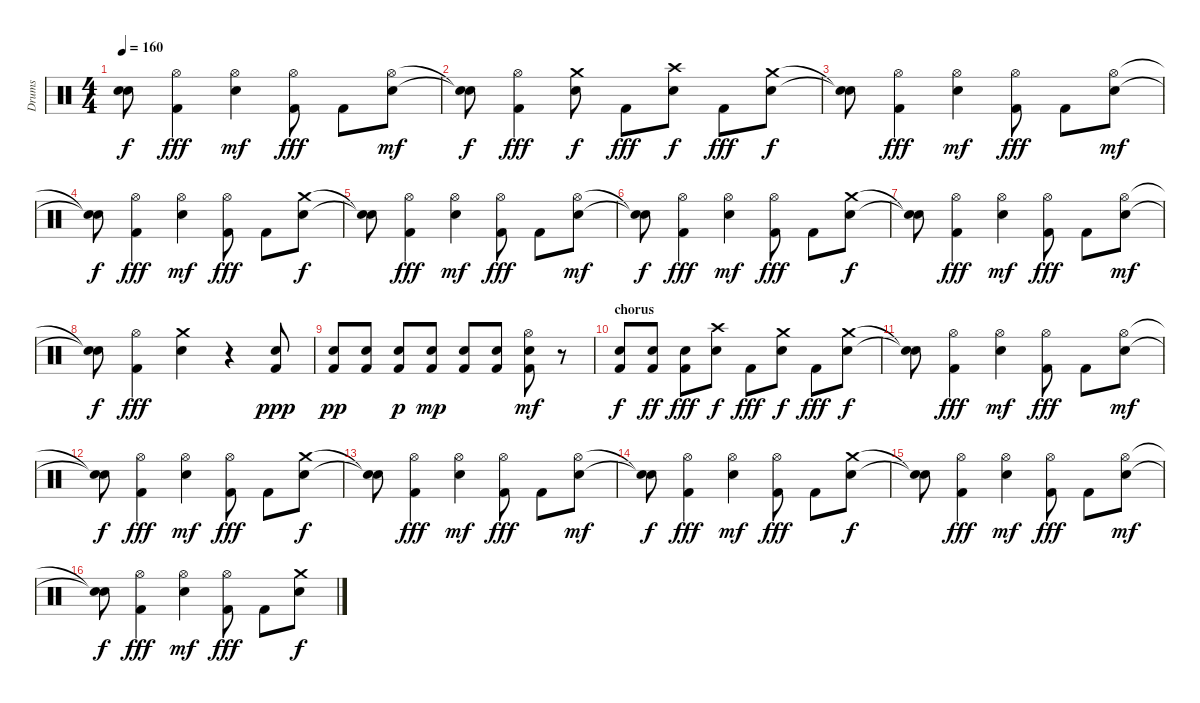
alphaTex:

\track ("Drums" "Drums") {instrument percussion}
\staff {score}
\articulation defaults
\ts (4 4)
\tempo 160
\clef neutral
\ks c
("Snare (hit)"{t} "Snare (hit)"{t}).8{dy f} ("Hi-Hat (open)" "Kick (hit) 2").4{dy fff} ("Hi-Hat (open)" "Electric Snare (hit)").4{dy mf} ("Hi-Hat (open)" "Kick (hit) 2").8{dy fff} "Kick (hit) 2".8 ("Hi-Hat (open)" "Electric Snare (hit)").8{dy mf} |
("Snare (hit)"{t} "Snare (hit)"{t}).8{dy f} ("Hi-Hat (open)" "Kick (hit) 2").4{dy fff} ("Crash medium (hit)" "Electric Snare (hit)").8{dy f} "Kick (hit) 2".8{dy fff} ("Crash high (hit)" "Electric Snare (hit)").8{dy f} "Kick (hit) 2".8{dy fff} ("Crash medium (hit)" "Electric Snare (hit)").8{dy f} |
("Snare (hit)"{t} "Snare (hit)"{t}).8 ("Hi-Hat (open)" "Kick (hit) 2").4{dy fff} ("Hi-Hat (open)" "Electric Snare (hit)").4{dy mf} ("Hi-Hat (open)" "Kick (hit) 2").8{dy fff} "Kick (hit) 2".8 ("Hi-Hat (open)" "Electric Snare (hit)").8{dy mf} |
("Snare (hit)"{t} "Snare (hit)"{t}).8{dy f} ("Hi-Hat (open)" "Kick (hit) 2").4{dy fff} ("Hi-Hat (open)" "Electric Snare (hit)").4{dy mf} ("Hi-Hat (open)" "Kick (hit) 2").8{dy fff} "Kick (hit) 2".8 ("Crash medium (hit)" "Electric Snare (hit)").8{dy f} |
("Snare (hit)"{t} "Snare (hit)"{t}).8 ("Hi-Hat (open)" "Kick (hit) 2").4{dy fff} ("Hi-Hat (open)" "Electric Snare (hit)").4{dy mf} ("Hi-Hat (open)" "Kick (hit) 2").8{dy fff} "Kick (hit) 2".8 ("Hi-Hat (open)" "Electric Snare (hit)").8{dy mf} |
("Snare (hit)"{t} "Snare (hit)"{t}).8{dy f} ("Hi-Hat (open)" "Kick (hit) 2").4{dy fff} ("Hi-Hat (open)" "Electric Snare (hit)").4{dy mf} ("Hi-Hat (open)" "Kick (hit) 2").8{dy fff} "Kick (hit) 2".8 ("Crash medium (hit)" "Electric Snare (hit)").8{dy f} |
("Snare (hit)"{t} "Snare (hit)"{t}).8 ("Hi-Hat (open)" "Kick (hit) 2").4{dy fff} ("Hi-Hat (open)" "Electric Snare (hit)").4{dy mf} ("Hi-Hat (open)" "Kick (hit) 2").8{dy fff} "Kick (hit) 2".8 ("Hi-Hat (open)" "Electric Snare (hit)").8{dy mf} |
("Snare (hit)"{t} "Snare (hit)"{t}).8{dy f} ("Hi-Hat (open)" "Kick (hit) 2").4{dy fff} ("Crash medium (hit)" "Electric Snare (hit)").4 r.4 ("Kick (hit) 2" "Electric Snare (hit)").8{dy ppp} |
("Electric Snare (hit)" "Kick (hit) 2").8{dy pp} ("Electric Snare (hit)" "Kick (hit) 2").8 ("Electric Snare (hit)" "Kick (hit) 2").8{dy p} ("Electric Snare (hit)" "Kick (hit) 2").8{dy mp} ("Electric Snare (hit)" "Kick (hit) 2").8 ("Electric Snare (hit)" "Kick (hit) 2").8 ("Hi-Hat (open)" "Electric Snare (hit)" "Kick (hit) 2").8{dy mf} r.8 |
\section ("" "chorus")
("Kick (hit) 2" "Electric Snare (hit)").8{dy f} ("Kick (hit) 2" "Electric Snare (hit)").8{dy ff} ("Kick (hit) 2" "Electric Snare (hit)").8{dy fff} ("Crash high (hit)" "Electric Snare (hit)").8{dy f} "Kick (hit) 2".8{dy fff} ("Crash medium (hit)" "Electric Snare (hit)").8{dy f} "Kick (hit) 2".8{dy fff} ("Crash medium (hit)" "Electric Snare (hit)").8{dy f} |
("Snare (hit)"{t} "Snare (hit)"{t}).8 ("Hi-Hat (open)" "Kick (hit) 2").4{dy fff} ("Hi-Hat (open)" "Electric Snare (hit)").4{dy mf} ("Hi-Hat (open)" "Kick (hit) 2").8{dy fff} "Kick (hit) 2".8 ("Hi-Hat (open)" "Electric Snare (hit)").8{dy mf} |
("Snare (hit)"{t} "Snare (hit)"{t}).8{dy f} ("Hi-Hat (open)" "Kick (hit) 2").4{dy fff} ("Hi-Hat (open)" "Electric Snare (hit)").4{dy mf} ("Hi-Hat (open)" "Kick (hit) 2").8{dy fff} "Kick (hit) 2".8 ("Crash medium (hit)" "Electric Snare (hit)").8{dy f} |
("Snare (hit)"{t} "Snare (hit)"{t}).8 ("Hi-Hat (open)" "Kick (hit) 2").4{dy fff} ("Hi-Hat (open)" "Electric Snare (hit)").4{dy mf} ("Hi-Hat (open)" "Kick (hit) 2").8{dy fff} "Kick (hit) 2".8 ("Hi-Hat (open)" "Electric Snare (hit)").8{dy mf} |
("Snare (hit)"{t} "Snare (hit)"{t}).8{dy f} ("Hi-Hat (open)" "Kick (hit) 2").4{dy fff} ("Hi-Hat (open)" "Electric Snare (hit)").4{dy mf} ("Hi-Hat (open)" "Kick (hit) 2").8{dy fff} "Kick (hit) 2".8 ("Crash medium (hit)" "Electric Snare (hit)").8{dy f} |
("Snare (hit)"{t} "Snare (hit)"{t}).8 ("Hi-Hat (open)" "Kick (hit) 2").4{dy fff} ("Hi-Hat (open)" "Electric Snare (hit)").4{dy mf} ("Hi-Hat (open)" "Kick (hit) 2").8{dy fff} "Kick (hit) 2".8 ("Hi-Hat (open)" "Electric Snare (hit)").8{dy mf} |
("Snare (hit)"{t} "Snare (hit)"{t}).8{dy f} ("Hi-Hat (open)" "Kick (hit) 2").4{dy fff} ("Hi-Hat (open)" "Electric Snare (hit)").4{dy mf} ("Hi-Hat (open)" "Kick (hit) 2").8{dy fff} "Kick (hit) 2".8 ("Crash medium (hit)" "Electric Snare (hit)").8{dy f}
